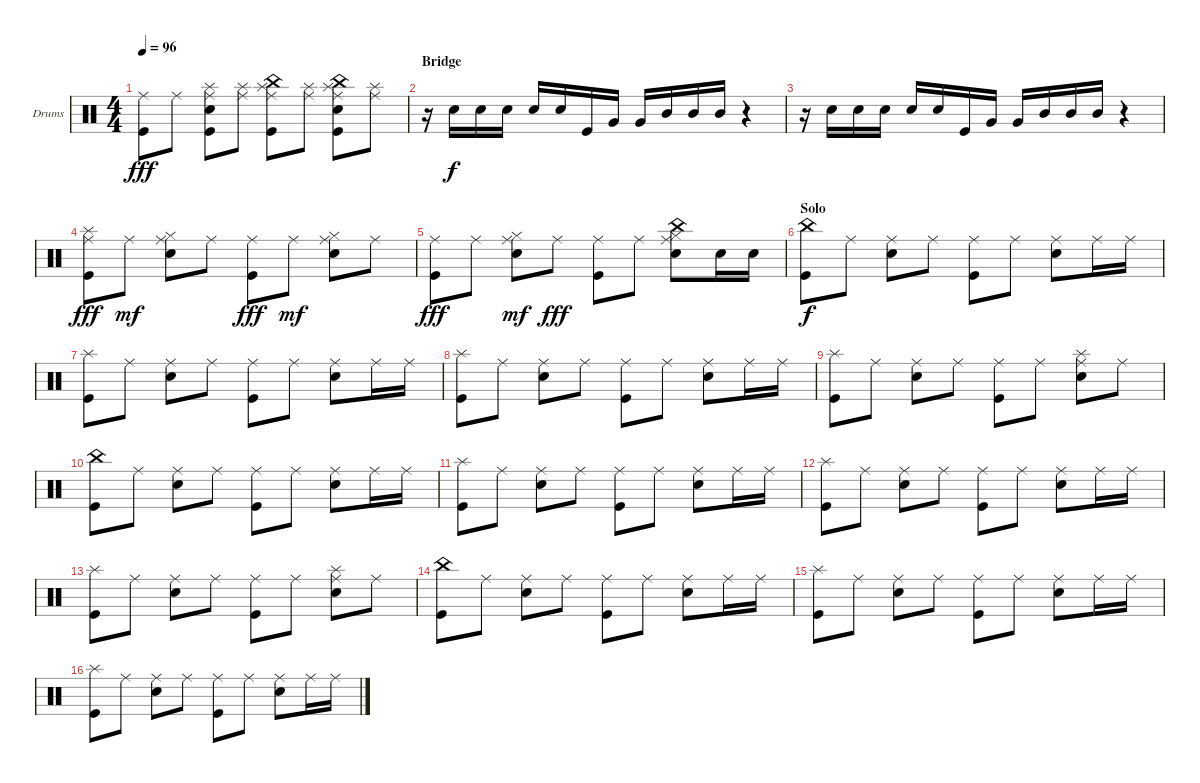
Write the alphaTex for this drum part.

\defaultSystemsLayout 4
\bracketExtendMode groupsimilarinstruments
\firstSystemTrackNameOrientation horizontal
\otherSystemsTrackNameOrientation horizontal
\track ("Howard" "Drums") {instrument percussion}
\staff {score}
\articulation defaults
\ts (4 4)
\tempo 96
\clef neutral
\ks c
("Kick (hit)" "Ride (middle)").8{dy fff} "Ride (middle)".8 ("Splash (hit)" "Ride (middle)" "Kick (hit)" "Snare (hit) 2").8 ("Splash (hit)" "Ride (middle)").8 ("Splash (hit)" "Kick (hit)" "Ride (middle)" "China (hit)").8 ("Splash (hit)" "Ride (middle)").8 ("Splash (hit)" "Kick (hit)" "Snare (hit) 2" "Ride (middle)" "China (hit)").8 ("Splash (hit)" "Ride (middle)").8 |
\section ("" "Bridge")
r.16 "Snare (hit) 2".16{dy f} "Snare (hit) 2".16 "Snare (hit) 2".16 "Snare (hit) 2".16 "Snare (hit) 2".16 "Kick (hit)".16 "Very Low Tom (hit)".16 "Very Low Tom (hit)".16 "Mid Tom (hit)".16 "Mid Tom (hit)".16 "Mid Tom (hit)".16 r.4 |
r.16 "Snare (hit) 2".16 "Snare (hit) 2".16 "Snare (hit) 2".16 "Snare (hit) 2".16 "Snare (hit) 2".16 "Kick (hit)".16 "Very Low Tom (hit)".16 "Very Low Tom (hit)".16 "Mid Tom (hit)".16 "Mid Tom (hit)".16 "Mid Tom (hit)".16 r.4 |
("Kick (hit)" "Ride (middle)" "Splash (hit)").8{dy fff} "Ride (middle)".8{dy mf} ("Snare (hit) 2" "Hi-Hat (closed)" "Ride (middle)").8 "Ride (middle)".8 ("Kick (hit)" "Ride (middle)").8{dy fff} "Ride (middle)".8{dy mf} ("Snare (hit) 2" "Hi-Hat (closed)" "Ride (middle)").8 "Ride (middle)".8 |
("Kick (hit)" "Ride (middle)").8{dy fff} "Ride (middle)".8 ("Snare (hit) 2" "Hi-Hat (closed)" "Ride (middle)").8{dy mf} "Ride (middle)".8{dy fff} ("Kick (hit)" "Ride (middle)").8 "Ride (middle)".8 ("Snare (hit) 2" "Hi-Hat (closed)" "Ride (middle)" "China (hit)").8 "Snare (hit) 2".16 "Snare (hit) 2".16 |
\section ("" "Solo")
("China (hit)" "Kick (hit)").8{dy f} "Ride (middle)".8 ("Ride (middle)" "Snare (hit) 2").8 "Ride (middle)".8 ("Ride (middle)" "Kick (hit)").8 "Ride (middle)".8 ("Ride (middle)" "Snare (hit) 2").8 "Ride (middle)".16 "Ride (middle)".16 |
("Kick (hit)" "Splash (hit)").8 "Ride (middle)".8 ("Ride (middle)" "Snare (hit) 2").8 "Ride (middle)".8 ("Ride (middle)" "Kick (hit)").8 "Ride (middle)".8 ("Ride (middle)" "Snare (hit) 2").8 "Ride (middle)".16 "Ride (middle)".16 |
("Kick (hit)" "Splash (hit)").8 "Ride (middle)".8 ("Ride (middle)" "Snare (hit) 2").8 "Ride (middle)".8 ("Ride (middle)" "Kick (hit)").8 "Ride (middle)".8 ("Ride (middle)" "Snare (hit) 2").8 "Ride (middle)".16 "Ride (middle)".16 |
("Kick (hit)" "Splash (hit)").8 "Ride (middle)".8 ("Ride (middle)" "Snare (hit) 2").8 "Ride (middle)".8 ("Ride (middle)" "Kick (hit)").8 "Ride (middle)".8 ("Ride (middle)" "Snare (hit) 2" "Splash (hit)").8 "Ride (middle)".8 |
("China (hit)" "Kick (hit)").8 "Ride (middle)".8 ("Ride (middle)" "Snare (hit) 2").8 "Ride (middle)".8 ("Ride (middle)" "Kick (hit)").8 "Ride (middle)".8 ("Ride (middle)" "Snare (hit) 2").8 "Ride (middle)".16 "Ride (middle)".16 |
("Kick (hit)" "Splash (hit)").8 "Ride (middle)".8 ("Ride (middle)" "Snare (hit) 2").8 "Ride (middle)".8 ("Ride (middle)" "Kick (hit)").8 "Ride (middle)".8 ("Ride (middle)" "Snare (hit) 2").8 "Ride (middle)".16 "Ride (middle)".16 |
("Kick (hit)" "Splash (hit)").8 "Ride (middle)".8 ("Ride (middle)" "Snare (hit) 2").8 "Ride (middle)".8 ("Ride (middle)" "Kick (hit)").8 "Ride (middle)".8 ("Ride (middle)" "Snare (hit) 2").8 "Ride (middle)".16 "Ride (middle)".16 |
("Kick (hit)" "Splash (hit)").8 "Ride (middle)".8 ("Ride (middle)" "Snare (hit) 2").8 "Ride (middle)".8 ("Ride (middle)" "Kick (hit)").8 "Ride (middle)".8 ("Ride (middle)" "Snare (hit) 2" "Splash (hit)").8 "Ride (middle)".8 |
("China (hit)" "Kick (hit)").8 "Ride (middle)".8 ("Ride (middle)" "Snare (hit) 2").8 "Ride (middle)".8 ("Ride (middle)" "Kick (hit)").8 "Ride (middle)".8 ("Ride (middle)" "Snare (hit) 2").8 "Ride (middle)".16 "Ride (middle)".16 |
("Kick (hit)" "Splash (hit)").8 "Ride (middle)".8 ("Ride (middle)" "Snare (hit) 2").8 "Ride (middle)".8 ("Ride (middle)" "Kick (hit)").8 "Ride (middle)".8 ("Ride (middle)" "Snare (hit) 2").8 "Ride (middle)".16 "Ride (middle)".16 |
("Kick (hit)" "Splash (hit)").8 "Ride (middle)".8 ("Ride (middle)" "Snare (hit) 2").8 "Ride (middle)".8 ("Ride (middle)" "Kick (hit)").8 "Ride (middle)".8 ("Ride (middle)" "Snare (hit) 2").8 "Ride (middle)".16 "Ride (middle)".16
